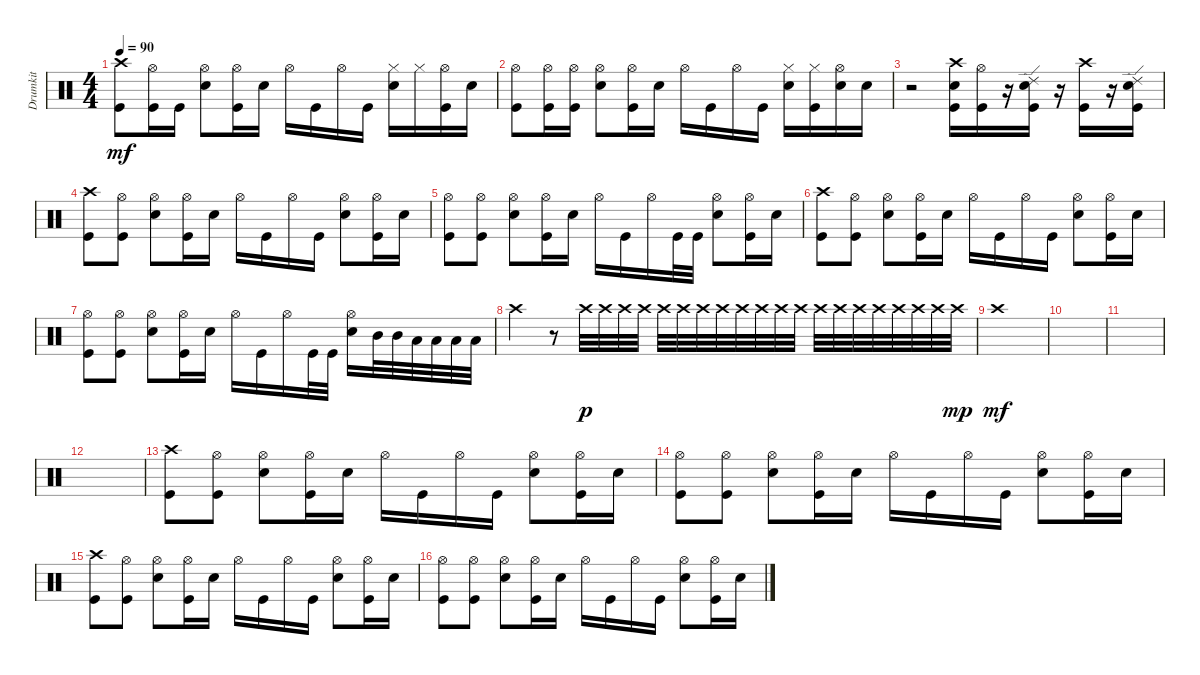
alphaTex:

\track ("Drumkit" "Drumkit") {instrument percussion}
\staff {score}
\articulation defaults
\ts (4 4)
\tempo 90
\clef neutral
\ks c
("Kick (hit)" "Crash high (hit)").8{dy mf} ("Kick (hit)" "Hi-Hat (open)").16 "Kick (hit)".16 ("Snare (hit) 2" "Hi-Hat (open)").8 ("Hi-Hat (open)" "Kick (hit)").16 "Snare (hit) 2".16 "Hi-Hat (open)".16 "Kick (hit)".16 "Hi-Hat (open)".16 "Kick (hit)".16 ("Snare (hit) 2" "Hi-Hat (closed)").16 "Hi-Hat (closed)".16 ("Kick (hit)" "Hi-Hat (open)").16 "Snare (hit) 2".16 |
("Kick (hit)" "Hi-Hat (open)").8 ("Kick (hit)" "Hi-Hat (open)").16 ("Kick (hit)" "Hi-Hat (open)").16 ("Snare (hit) 2" "Hi-Hat (open)").8 ("Hi-Hat (open)" "Kick (hit)").16 "Snare (hit) 2".16 "Hi-Hat (open)".16 "Kick (hit)".16 "Hi-Hat (open)".16 "Kick (hit)".16 ("Snare (hit) 2" "Hi-Hat (closed)").16 ("Kick (hit)" "Hi-Hat (closed)").16 ("Snare (hit) 2" "Hi-Hat (open)").16 "Snare (hit) 2".16 |
r.2 ("Snare (hit) 2" "Kick (hit)" "Crash high (hit)").16 ("Kick (hit)" "Hi-Hat (open)").16 r.16 ("Kick (hit)" "Ride (edge) 2" "Snare (hit) 2").16 r.16 ("Kick (hit)" "Crash high (hit)").16 r.16 ("Kick (hit)" "Snare (hit) 2" "Ride (edge) 2").16 |
("Kick (hit)" "Crash high (hit)").8 ("Kick (hit)" "Hi-Hat (open)").8 ("Snare (hit) 2" "Hi-Hat (open)").8 ("Kick (hit)" "Hi-Hat (open)").16 "Snare (hit) 2".16 "Hi-Hat (open)".16 "Kick (hit)".16 "Hi-Hat (open)".16 "Kick (hit)".16 ("Snare (hit) 2" "Hi-Hat (open)").8 ("Kick (hit)" "Hi-Hat (open)").16 "Snare (hit) 2".16 |
("Kick (hit)" "Hi-Hat (open)").8 ("Kick (hit)" "Hi-Hat (open)").8 ("Snare (hit) 2" "Hi-Hat (open)").8 ("Kick (hit)" "Hi-Hat (open)").16 "Snare (hit) 2".16 "Hi-Hat (open)".16 "Kick (hit)".16 "Hi-Hat (open)".16 "Kick (hit)".32 "Kick (hit)".32 ("Snare (hit) 2" "Hi-Hat (open)").8 ("Kick (hit)" "Hi-Hat (open)").16 "Snare (hit) 2".16 |
("Kick (hit)" "Crash high (hit)").8 ("Kick (hit)" "Hi-Hat (open)").8 ("Snare (hit) 2" "Hi-Hat (open)").8 ("Kick (hit)" "Hi-Hat (open)").16 "Snare (hit) 2".16 "Hi-Hat (open)".16 "Kick (hit)".16 "Hi-Hat (open)".16 "Kick (hit)".16 ("Snare (hit) 2" "Hi-Hat (open)").8 ("Kick (hit)" "Hi-Hat (open)").16 "Snare (hit) 2".16 |
("Kick (hit)" "Hi-Hat (open)").8 ("Kick (hit)" "Hi-Hat (open)").8 ("Snare (hit) 2" "Hi-Hat (open)").8 ("Kick (hit)" "Hi-Hat (open)").16 "Snare (hit) 2".16 "Hi-Hat (open)".16 "Kick (hit)".16 "Hi-Hat (open)".16 "Kick (hit)".32 "Kick (hit)".32 ("Snare (hit) 2" "Hi-Hat (open)").16 "Mid Tom (hit)".32 "Mid Tom (hit)".32 "Low Tom (hit)".32 "Low Tom (hit)".32 "Low Floor Tom (hit)".32 "Low Floor Tom (hit)".32 |
"Crash high (hit)".4 r.8 "Crash high (hit)".32{dy p} "Crash high (hit)".32 "Crash high (hit)".32 "Crash high (hit)".32 "Crash high (hit)".32 "Crash high (hit)".32 "Crash high (hit)".32 "Crash high (hit)".32 "Crash high (hit)".32 "Crash high (hit)".32 "Crash high (hit)".32 "Crash high (hit)".32 "Crash high (hit)".32 "Crash high (hit)".32 "Crash high (hit)".32 "Crash high (hit)".32 "Crash high (hit)".32 "Crash high (hit)".32 "Crash high (hit)".32 "Crash high (hit)".32{dy mp} |
"Crash high (hit)".1{dy mf} |
|
|
|
("Kick (hit)" "Crash high (hit)").8 ("Kick (hit)" "Hi-Hat (open)").8 ("Snare (hit) 2" "Hi-Hat (open)").8 ("Kick (hit)" "Hi-Hat (open)").16 "Snare (hit) 2".16 "Hi-Hat (open)".16 "Kick (hit)".16 "Hi-Hat (open)".16 "Kick (hit)".16 ("Snare (hit) 2" "Hi-Hat (open)").8 ("Kick (hit)" "Hi-Hat (open)").16 "Snare (hit) 2".16 |
("Kick (hit)" "Hi-Hat (open)").8 ("Kick (hit)" "Hi-Hat (open)").8 ("Snare (hit) 2" "Hi-Hat (open)").8 ("Kick (hit)" "Hi-Hat (open)").16 "Snare (hit) 2".16 "Hi-Hat (open)".16 "Kick (hit)".16 "Hi-Hat (open)".16 "Kick (hit)".16 ("Snare (hit) 2" "Hi-Hat (open)").8 ("Kick (hit)" "Hi-Hat (open)").16 "Snare (hit) 2".16 |
("Kick (hit)" "Crash high (hit)").8 ("Kick (hit)" "Hi-Hat (open)").8 ("Snare (hit) 2" "Hi-Hat (open)").8 ("Kick (hit)" "Hi-Hat (open)").16 "Snare (hit) 2".16 "Hi-Hat (open)".16 "Kick (hit)".16 "Hi-Hat (open)".16 "Kick (hit)".16 ("Snare (hit) 2" "Hi-Hat (open)").8 ("Kick (hit)" "Hi-Hat (open)").16 "Snare (hit) 2".16 |
("Kick (hit)" "Hi-Hat (open)").8 ("Kick (hit)" "Hi-Hat (open)").8 ("Snare (hit) 2" "Hi-Hat (open)").8 ("Kick (hit)" "Hi-Hat (open)").16 "Snare (hit) 2".16 "Hi-Hat (open)".16 "Kick (hit)".16 "Hi-Hat (open)".16 "Kick (hit)".16 ("Snare (hit) 2" "Hi-Hat (open)").8 ("Kick (hit)" "Hi-Hat (open)").16 "Snare (hit) 2".16
